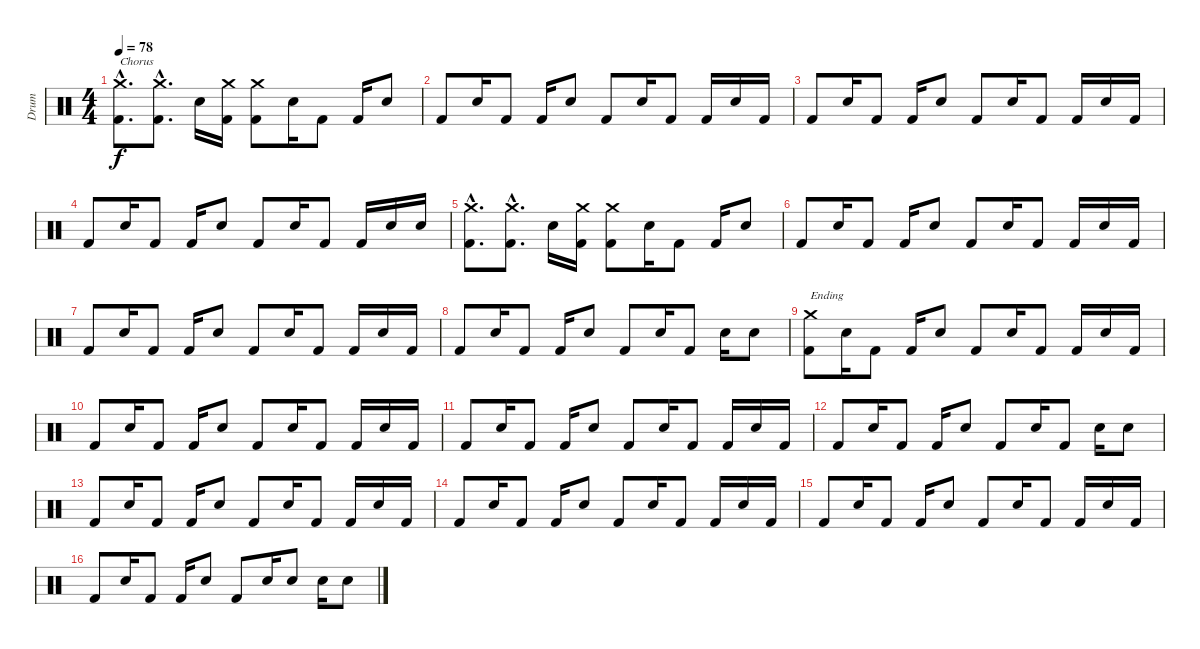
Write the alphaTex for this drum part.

\track ("Drum" "Drum") {instrument percussion}
\staff {score}
\articulation defaults
\ts (4 4)
\tempo 78
\clef neutral
\ks c
("Crash medium (hit)"{hac} "Kick (hit) 2"{hac}).8{d txt "Chorus" dy f} ("Crash medium (hit)"{hac} "Kick (hit) 2"{hac}).8{d} "Electric Snare (hit)".16 ("Crash medium (hit)" "Kick (hit) 2").16 ("Crash medium (hit)" "Kick (hit) 2").8 "Electric Snare (hit)".16 "Kick (hit) 2".8 "Kick (hit) 2".16 "Electric Snare (hit)".8 |
"Kick (hit) 2".8 "Electric Snare (hit)".16 "Kick (hit) 2".8 "Kick (hit) 2".16 "Electric Snare (hit)".8 "Kick (hit) 2".8 "Electric Snare (hit)".16 "Kick (hit) 2".8 "Kick (hit) 2".16 "Electric Snare (hit)".16 "Kick (hit) 2".16 |
"Kick (hit) 2".8 "Electric Snare (hit)".16 "Kick (hit) 2".8 "Kick (hit) 2".16 "Electric Snare (hit)".8 "Kick (hit) 2".8 "Electric Snare (hit)".16 "Kick (hit) 2".8 "Kick (hit) 2".16 "Electric Snare (hit)".16 "Kick (hit) 2".16 |
"Kick (hit) 2".8 "Electric Snare (hit)".16 "Kick (hit) 2".8 "Kick (hit) 2".16 "Electric Snare (hit)".8 "Kick (hit) 2".8 "Electric Snare (hit)".16 "Kick (hit) 2".8 "Kick (hit) 2".16 "Electric Snare (hit)".16 "Electric Snare (hit)".16 |
("Crash medium (hit)"{hac} "Kick (hit) 2"{hac}).8{d} ("Crash medium (hit)"{hac} "Kick (hit) 2"{hac}).8{d} "Electric Snare (hit)".16 ("Crash medium (hit)" "Kick (hit) 2").16 ("Crash medium (hit)" "Kick (hit) 2").8 "Electric Snare (hit)".16 "Kick (hit) 2".8 "Kick (hit) 2".16 "Electric Snare (hit)".8 |
"Kick (hit) 2".8 "Electric Snare (hit)".16 "Kick (hit) 2".8 "Kick (hit) 2".16 "Electric Snare (hit)".8 "Kick (hit) 2".8 "Electric Snare (hit)".16 "Kick (hit) 2".8 "Kick (hit) 2".16 "Electric Snare (hit)".16 "Kick (hit) 2".16 |
"Kick (hit) 2".8 "Electric Snare (hit)".16 "Kick (hit) 2".8 "Kick (hit) 2".16 "Electric Snare (hit)".8 "Kick (hit) 2".8 "Electric Snare (hit)".16 "Kick (hit) 2".8 "Kick (hit) 2".16 "Electric Snare (hit)".16 "Kick (hit) 2".16 |
"Kick (hit) 2".8 "Electric Snare (hit)".16 "Kick (hit) 2".8 "Kick (hit) 2".16 "Electric Snare (hit)".8 "Kick (hit) 2".8 "Electric Snare (hit)".16 "Kick (hit) 2".8 "Electric Snare (hit)".16 "Electric Snare (hit)".8 |
("Crash medium (hit)" "Kick (hit) 2").8{txt "Ending"} "Electric Snare (hit)".16 "Kick (hit) 2".8 "Kick (hit) 2".16 "Electric Snare (hit)".8 "Kick (hit) 2".8 "Electric Snare (hit)".16 "Kick (hit) 2".8 "Kick (hit) 2".16 "Electric Snare (hit)".16 "Kick (hit) 2".16 |
"Kick (hit) 2".8 "Electric Snare (hit)".16 "Kick (hit) 2".8 "Kick (hit) 2".16 "Electric Snare (hit)".8 "Kick (hit) 2".8 "Electric Snare (hit)".16 "Kick (hit) 2".8 "Kick (hit) 2".16 "Electric Snare (hit)".16 "Kick (hit) 2".16 |
"Kick (hit) 2".8 "Electric Snare (hit)".16 "Kick (hit) 2".8 "Kick (hit) 2".16 "Electric Snare (hit)".8 "Kick (hit) 2".8 "Electric Snare (hit)".16 "Kick (hit) 2".8 "Kick (hit) 2".16 "Electric Snare (hit)".16 "Kick (hit) 2".16 |
"Kick (hit) 2".8 "Electric Snare (hit)".16 "Kick (hit) 2".8 "Kick (hit) 2".16 "Electric Snare (hit)".8 "Kick (hit) 2".8 "Electric Snare (hit)".16 "Kick (hit) 2".8 "Electric Snare (hit)".16 "Electric Snare (hit)".8 |
"Kick (hit) 2".8 "Electric Snare (hit)".16 "Kick (hit) 2".8 "Kick (hit) 2".16 "Electric Snare (hit)".8 "Kick (hit) 2".8 "Electric Snare (hit)".16 "Kick (hit) 2".8 "Kick (hit) 2".16 "Electric Snare (hit)".16 "Kick (hit) 2".16 |
"Kick (hit) 2".8 "Electric Snare (hit)".16 "Kick (hit) 2".8 "Kick (hit) 2".16 "Electric Snare (hit)".8 "Kick (hit) 2".8 "Electric Snare (hit)".16 "Kick (hit) 2".8 "Kick (hit) 2".16 "Electric Snare (hit)".16 "Kick (hit) 2".16 |
"Kick (hit) 2".8 "Electric Snare (hit)".16 "Kick (hit) 2".8 "Kick (hit) 2".16 "Electric Snare (hit)".8 "Kick (hit) 2".8 "Electric Snare (hit)".16 "Kick (hit) 2".8 "Kick (hit) 2".16 "Electric Snare (hit)".16 "Kick (hit) 2".16 |
"Kick (hit) 2".8 "Electric Snare (hit)".16 "Kick (hit) 2".8 "Kick (hit) 2".16 "Electric Snare (hit)".8 "Kick (hit) 2".8 "Electric Snare (hit)".16 "Electric Snare (hit)".8 "Electric Snare (hit)".16 "Electric Snare (hit)".8
